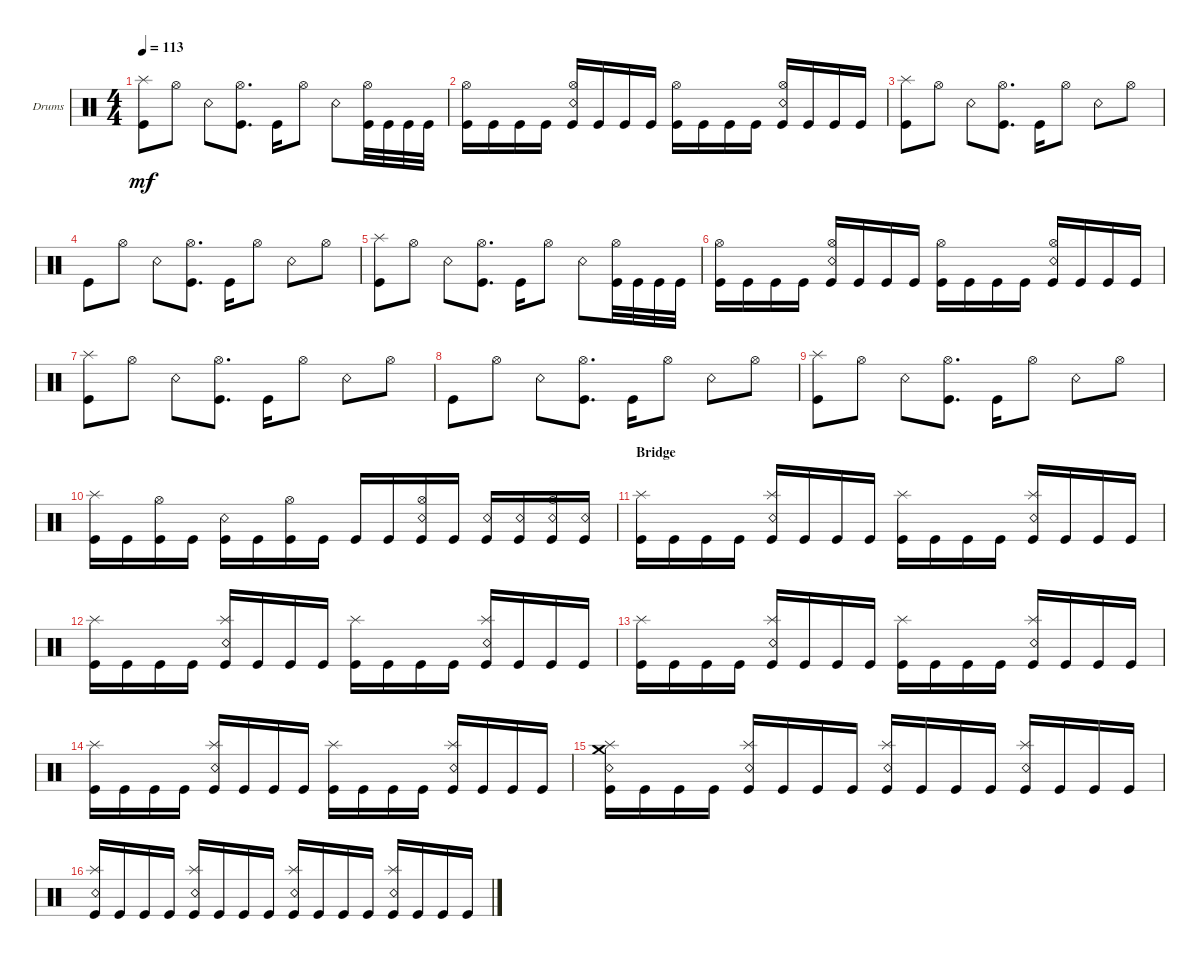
\defaultSystemsLayout 4
\bracketExtendMode groupsimilarinstruments
\firstSystemTrackNameOrientation horizontal
\otherSystemsTrackNameOrientation horizontal
\track ("Drums" "Drums") {instrument percussion}
\staff {score}
\articulation defaults
\ts (4 4)
\tempo 113
\clef neutral
\ks c
("Kick (hit)" "Splash (hit)").8{dy mf} "Hi-Hat (open)".8 "Snare (rim shot)".8 ("Kick (hit)" "Hi-Hat (open)").8{d} "Kick (hit)".16 "Hi-Hat (open)".8 "Snare (rim shot)".8 ("Kick (hit)" "Hi-Hat (open)").32 "Kick (hit)".32 "Kick (hit)".32 "Kick (hit)".32 |
("Kick (hit)" "Hi-Hat (open)").16 "Kick (hit)".16 "Kick (hit)".16 "Kick (hit)".16 ("Kick (hit)" "Hi-Hat (open)" "Snare (rim shot)").16 "Kick (hit)".16 "Kick (hit)".16 "Kick (hit)".16 ("Kick (hit)" "Hi-Hat (open)").16 "Kick (hit)".16 "Kick (hit)".16 "Kick (hit)".16 ("Kick (hit)" "Hi-Hat (open)" "Snare (rim shot)").16 "Kick (hit)".16 "Kick (hit)".16 "Kick (hit)".16 |
("Kick (hit)" "Splash (hit)").8 "Hi-Hat (open)".8 "Snare (rim shot)".8 ("Kick (hit)" "Hi-Hat (open)").8{d} "Kick (hit)".16 "Hi-Hat (open)".8 "Snare (rim shot)".8 "Hi-Hat (open)".8 |
"Kick (hit)".8 "Hi-Hat (open)".8 "Snare (rim shot)".8 ("Kick (hit)" "Hi-Hat (open)").8{d} "Kick (hit)".16 "Hi-Hat (open)".8 "Snare (rim shot)".8 "Hi-Hat (open)".8 |
("Kick (hit)" "Splash (hit)").8 "Hi-Hat (open)".8 "Snare (rim shot)".8 ("Kick (hit)" "Hi-Hat (open)").8{d} "Kick (hit)".16 "Hi-Hat (open)".8 "Snare (rim shot)".8 ("Kick (hit)" "Hi-Hat (open)").32 "Kick (hit)".32 "Kick (hit)".32 "Kick (hit)".32 |
("Kick (hit)" "Hi-Hat (open)").16 "Kick (hit)".16 "Kick (hit)".16 "Kick (hit)".16 ("Kick (hit)" "Hi-Hat (open)" "Snare (rim shot)").16 "Kick (hit)".16 "Kick (hit)".16 "Kick (hit)".16 ("Kick (hit)" "Hi-Hat (open)").16 "Kick (hit)".16 "Kick (hit)".16 "Kick (hit)".16 ("Kick (hit)" "Hi-Hat (open)" "Snare (rim shot)").16 "Kick (hit)".16 "Kick (hit)".16 "Kick (hit)".16 |
("Kick (hit)" "Splash (hit)").8 "Hi-Hat (open)".8 "Snare (rim shot)".8 ("Kick (hit)" "Hi-Hat (open)").8{d} "Kick (hit)".16 "Hi-Hat (open)".8 "Snare (rim shot)".8 "Hi-Hat (open)".8 |
"Kick (hit)".8 "Hi-Hat (open)".8 "Snare (rim shot)".8 ("Kick (hit)" "Hi-Hat (open)").8{d} "Kick (hit)".16 "Hi-Hat (open)".8 "Snare (rim shot)".8 "Hi-Hat (open)".8 |
("Kick (hit)" "Splash (hit)").8 "Hi-Hat (open)".8 "Snare (rim shot)".8 ("Kick (hit)" "Hi-Hat (open)").8{d} "Kick (hit)".16 "Hi-Hat (open)".8 "Snare (rim shot)".8 "Hi-Hat (open)".8 |
("Kick (hit)" "Splash (hit)").16 "Kick (hit)".16 ("Hi-Hat (open)" "Kick (hit)").16 "Kick (hit)".16 ("Snare (rim shot)" "Kick (hit)").16 "Kick (hit)".16 ("Hi-Hat (open)" "Kick (hit)").16 "Kick (hit)".16 "Kick (hit)".16 "Kick (hit)".16 ("Hi-Hat (open)" "Snare (rim shot)" "Kick (hit)").16 "Kick (hit)".16 ("Snare (rim shot)" "Kick (hit)").16 ("Snare (rim shot)" "Kick (hit)").16 ("Hi-Hat (open)" "Snare (rim shot)" "Kick (hit)").16 ("Snare (rim shot)" "Kick (hit)").16 |
\section ("" "Bridge")
("Kick (hit)" "Splash (hit)").16 "Kick (hit)".16 "Kick (hit)".16 "Kick (hit)".16 ("Kick (hit)" "Splash (hit)" "Snare (rim shot)").16 "Kick (hit)".16 "Kick (hit)".16 "Kick (hit)".16 ("Kick (hit)" "Splash (hit)").16 "Kick (hit)".16 "Kick (hit)".16 "Kick (hit)".16 ("Kick (hit)" "Splash (hit)" "Snare (rim shot)").16 "Kick (hit)".16 "Kick (hit)".16 "Kick (hit)".16 |
("Kick (hit)" "Splash (hit)").16 "Kick (hit)".16 "Kick (hit)".16 "Kick (hit)".16 ("Kick (hit)" "Splash (hit)" "Snare (rim shot)").16 "Kick (hit)".16 "Kick (hit)".16 "Kick (hit)".16 ("Kick (hit)" "Splash (hit)").16 "Kick (hit)".16 "Kick (hit)".16 "Kick (hit)".16 ("Kick (hit)" "Splash (hit)" "Snare (rim shot)").16 "Kick (hit)".16 "Kick (hit)".16 "Kick (hit)".16 |
("Kick (hit)" "Splash (hit)").16 "Kick (hit)".16 "Kick (hit)".16 "Kick (hit)".16 ("Kick (hit)" "Splash (hit)" "Snare (rim shot)").16 "Kick (hit)".16 "Kick (hit)".16 "Kick (hit)".16 ("Kick (hit)" "Splash (hit)").16 "Kick (hit)".16 "Kick (hit)".16 "Kick (hit)".16 ("Kick (hit)" "Splash (hit)" "Snare (rim shot)").16 "Kick (hit)".16 "Kick (hit)".16 "Kick (hit)".16 |
("Kick (hit)" "Splash (hit)").16 "Kick (hit)".16 "Kick (hit)".16 "Kick (hit)".16 ("Kick (hit)" "Splash (hit)" "Snare (rim shot)").16 "Kick (hit)".16 "Kick (hit)".16 "Kick (hit)".16 ("Kick (hit)" "Splash (hit)").16 "Kick (hit)".16 "Kick (hit)".16 "Kick (hit)".16 ("Kick (hit)" "Splash (hit)" "Snare (rim shot)").16 "Kick (hit)".16 "Kick (hit)".16 "Kick (hit)".16 |
("Kick (hit)" "Splash (hit)" "Snare (rim shot)" "Crash medium (hit)").16 "Kick (hit)".16 "Kick (hit)".16 "Kick (hit)".16 ("Kick (hit)" "Splash (hit)" "Snare (rim shot)").16 "Kick (hit)".16 "Kick (hit)".16 "Kick (hit)".16 ("Kick (hit)" "Splash (hit)" "Snare (rim shot)").16 "Kick (hit)".16 "Kick (hit)".16 "Kick (hit)".16 ("Kick (hit)" "Splash (hit)" "Snare (rim shot)").16 "Kick (hit)".16 "Kick (hit)".16 "Kick (hit)".16 |
("Kick (hit)" "Splash (hit)" "Snare (rim shot)").16 "Kick (hit)".16 "Kick (hit)".16 "Kick (hit)".16 ("Kick (hit)" "Splash (hit)" "Snare (rim shot)").16 "Kick (hit)".16 "Kick (hit)".16 "Kick (hit)".16 ("Kick (hit)" "Splash (hit)" "Snare (rim shot)").16 "Kick (hit)".16 "Kick (hit)".16 "Kick (hit)".16 ("Kick (hit)" "Splash (hit)" "Snare (rim shot)").16 "Kick (hit)".16 "Kick (hit)".16 "Kick (hit)".16
